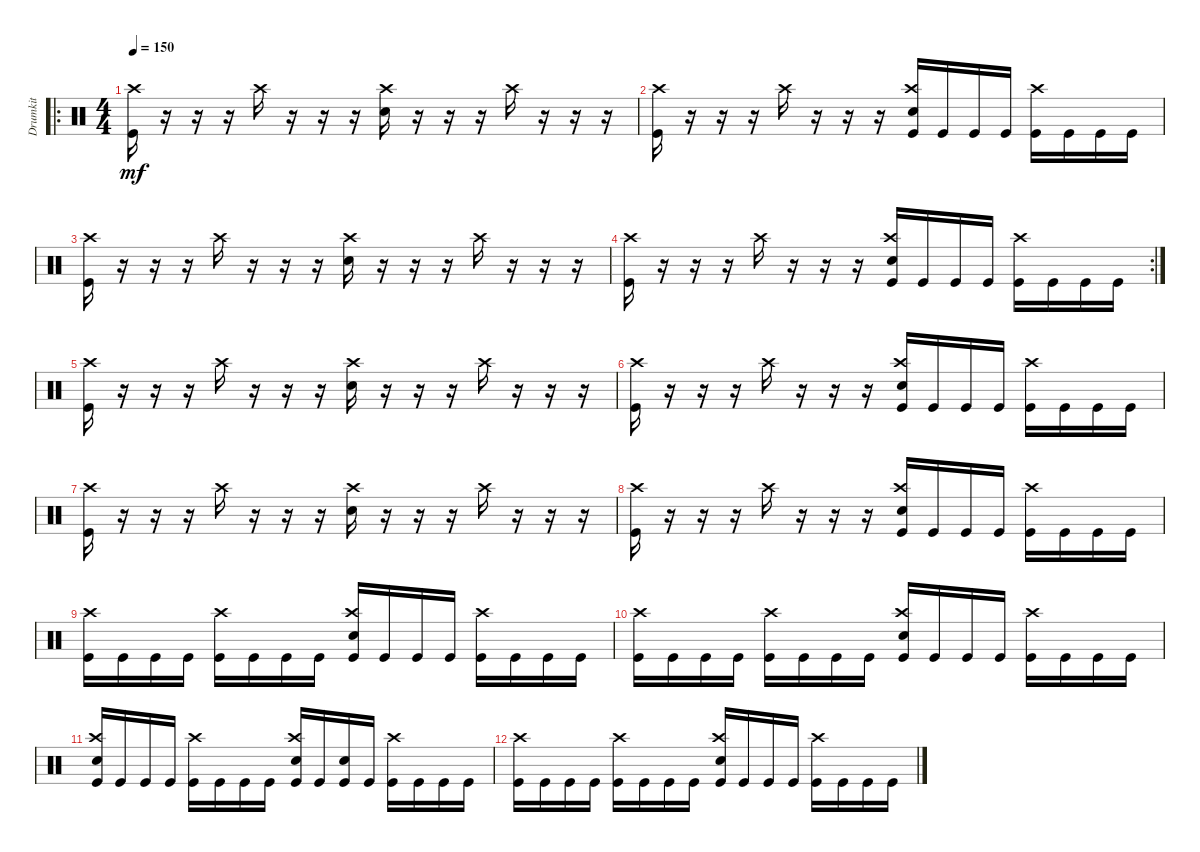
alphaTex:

\track ("Drumkit" "Drumkit") {instrument percussion}
\staff {score}
\articulation defaults
\ro
\ts (4 4)
\tempo 150
\clef neutral
\ks c
("Kick (hit)" "Crash high (hit)").16{dy mf} r.16 r.16 r.16 "Crash high (hit)".16 r.16 r.16 r.16 ("Crash high (hit)" "Snare (hit) 2").16 r.16 r.16 r.16 "Crash high (hit)".16 r.16 r.16 r.16 |
("Kick (hit)" "Crash high (hit)").16 r.16 r.16 r.16 "Crash high (hit)".16 r.16 r.16 r.16 ("Crash high (hit)" "Snare (hit) 2" "Kick (hit)").16 "Kick (hit)".16 "Kick (hit)".16 "Kick (hit)".16 ("Crash high (hit)" "Kick (hit)").16 "Kick (hit)".16 "Kick (hit)".16 "Kick (hit)".16 |
("Kick (hit)" "Crash high (hit)").16 r.16 r.16 r.16 "Crash high (hit)".16 r.16 r.16 r.16 ("Crash high (hit)" "Snare (hit) 2").16 r.16 r.16 r.16 "Crash high (hit)".16 r.16 r.16 r.16 |
\rc 2
("Kick (hit)" "Crash high (hit)").16 r.16 r.16 r.16 "Crash high (hit)".16 r.16 r.16 r.16 ("Crash high (hit)" "Snare (hit) 2" "Kick (hit)").16 "Kick (hit)".16 "Kick (hit)".16 "Kick (hit)".16 ("Crash high (hit)" "Kick (hit)").16 "Kick (hit)".16 "Kick (hit)".16 "Kick (hit)".16 |
("Kick (hit)" "Crash high (hit)").16 r.16 r.16 r.16 "Crash high (hit)".16 r.16 r.16 r.16 ("Crash high (hit)" "Snare (hit) 2").16 r.16 r.16 r.16 "Crash high (hit)".16 r.16 r.16 r.16 |
("Kick (hit)" "Crash high (hit)").16 r.16 r.16 r.16 "Crash high (hit)".16 r.16 r.16 r.16 ("Crash high (hit)" "Snare (hit) 2" "Kick (hit)").16 "Kick (hit)".16 "Kick (hit)".16 "Kick (hit)".16 ("Crash high (hit)" "Kick (hit)").16 "Kick (hit)".16 "Kick (hit)".16 "Kick (hit)".16 |
("Kick (hit)" "Crash high (hit)").16 r.16 r.16 r.16 "Crash high (hit)".16 r.16 r.16 r.16 ("Crash high (hit)" "Snare (hit) 2").16 r.16 r.16 r.16 "Crash high (hit)".16 r.16 r.16 r.16 |
("Kick (hit)" "Crash high (hit)").16 r.16 r.16 r.16 "Crash high (hit)".16 r.16 r.16 r.16 ("Crash high (hit)" "Snare (hit) 2" "Kick (hit)").16 "Kick (hit)".16 "Kick (hit)".16 "Kick (hit)".16 ("Crash high (hit)" "Kick (hit)").16 "Kick (hit)".16 "Kick (hit)".16 "Kick (hit)".16 |
("Crash high (hit)" "Kick (hit)").16 "Kick (hit)".16 "Kick (hit)".16 "Kick (hit)".16 ("Crash high (hit)" "Kick (hit)").16 "Kick (hit)".16 "Kick (hit)".16 "Kick (hit)".16 ("Crash high (hit)" "Snare (hit) 2" "Kick (hit)").16 "Kick (hit)".16 "Kick (hit)".16 "Kick (hit)".16 ("Crash high (hit)" "Kick (hit)").16 "Kick (hit)".16 "Kick (hit)".16 "Kick (hit)".16 |
("Crash high (hit)" "Kick (hit)").16 "Kick (hit)".16 "Kick (hit)".16 "Kick (hit)".16 ("Crash high (hit)" "Kick (hit)").16 "Kick (hit)".16 "Kick (hit)".16 "Kick (hit)".16 ("Crash high (hit)" "Snare (hit) 2" "Kick (hit)").16 "Kick (hit)".16 "Kick (hit)".16 "Kick (hit)".16 ("Crash high (hit)" "Kick (hit)").16 "Kick (hit)".16 "Kick (hit)".16 "Kick (hit)".16 |
("Crash high (hit)" "Snare (hit) 2" "Kick (hit)").16 "Kick (hit)".16 "Kick (hit)".16 "Kick (hit)".16 ("Crash high (hit)" "Kick (hit)").16 "Kick (hit)".16 "Kick (hit)".16 "Kick (hit)".16 ("Crash high (hit)" "Snare (hit) 2" "Kick (hit)").16 "Kick (hit)".16 ("Kick (hit)" "Snare (hit) 2").16 "Kick (hit)".16 ("Crash high (hit)" "Kick (hit)").16 "Kick (hit)".16 "Kick (hit)".16 "Kick (hit)".16 |
("Crash high (hit)" "Kick (hit)").16 "Kick (hit)".16 "Kick (hit)".16 "Kick (hit)".16 ("Crash high (hit)" "Kick (hit)").16 "Kick (hit)".16 "Kick (hit)".16 "Kick (hit)".16 ("Crash high (hit)" "Snare (hit) 2" "Kick (hit)").16 "Kick (hit)".16 "Kick (hit)".16 "Kick (hit)".16 ("Crash high (hit)" "Kick (hit)").16 "Kick (hit)".16 "Kick (hit)".16 "Kick (hit)".16
